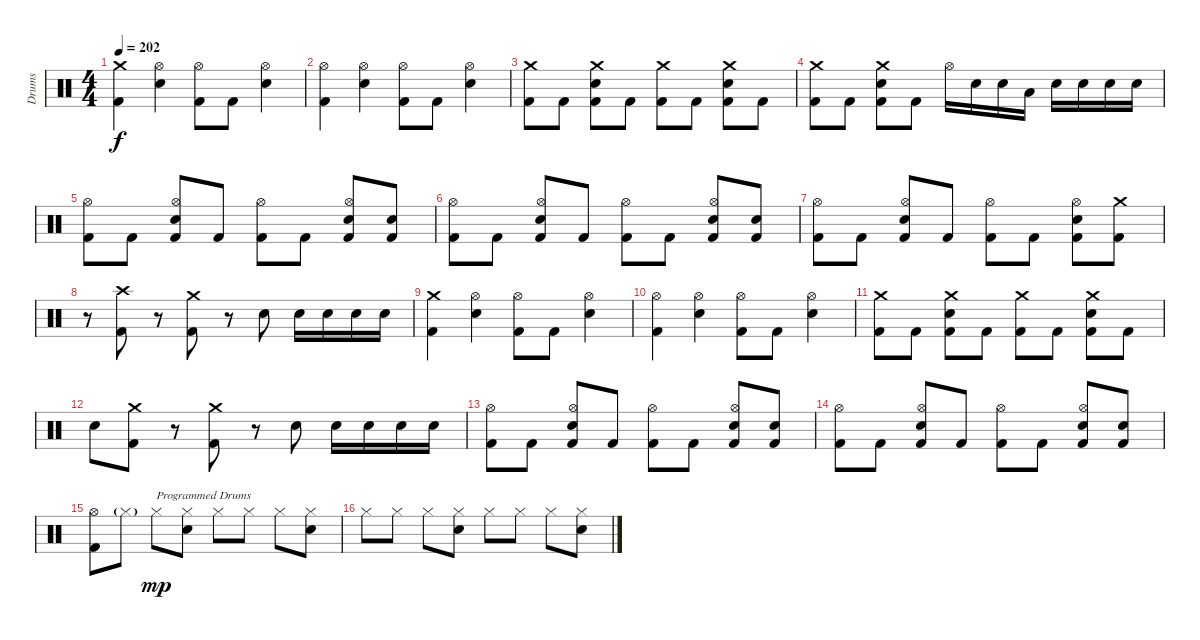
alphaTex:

\track ("Drums" "Drums") {instrument percussion}
\staff {score}
\articulation defaults
\ts (4 4)
\tempo 202
\clef neutral
\ks c
("Crash medium (hit)" "Kick (hit) 2").4{dy f} ("Hi-Hat (open)" "Electric Snare (hit)").4 ("Hi-Hat (open)" "Kick (hit) 2").8 "Kick (hit) 2".8 ("Hi-Hat (open)" "Electric Snare (hit)").4 |
("Hi-Hat (open)" "Kick (hit) 2").4 ("Hi-Hat (open)" "Electric Snare (hit)").4 ("Hi-Hat (open)" "Kick (hit) 2").8 "Kick (hit) 2".8 ("Hi-Hat (open)" "Electric Snare (hit)").4 |
("Crash medium (hit)" "Kick (hit) 2").8 "Kick (hit) 2".8 ("Crash medium (hit)" "Electric Snare (hit)" "Kick (hit) 2").8 "Kick (hit) 2".8 ("Crash medium (hit)" "Kick (hit) 2").8 "Kick (hit) 2".8 ("Crash medium (hit)" "Electric Snare (hit)" "Kick (hit) 2").8 "Kick (hit) 2".8 |
("Crash medium (hit)" "Kick (hit) 2").8 "Kick (hit) 2".8 ("Crash medium (hit)" "Electric Snare (hit)" "Kick (hit) 2").8 "Kick (hit) 2".8 "Hi-Hat (open)".16 "Electric Snare (hit)".16 "Electric Snare (hit)".16 "Low Tom (hit)".16 "Electric Snare (hit)".16 "Electric Snare (hit)".16 "Electric Snare (hit)".16 "Electric Snare (hit)".16 |
("Hi-Hat (open)" "Kick (hit) 2").8 "Kick (hit) 2".8 ("Hi-Hat (open)" "Electric Snare (hit)" "Kick (hit) 2").8 "Kick (hit) 2".8 ("Hi-Hat (open)" "Kick (hit) 2").8 "Kick (hit) 2".8 ("Hi-Hat (open)" "Electric Snare (hit)" "Kick (hit) 2").8 ("Electric Snare (hit)" "Kick (hit) 2").8 |
("Hi-Hat (open)" "Kick (hit) 2").8 "Kick (hit) 2".8 ("Hi-Hat (open)" "Electric Snare (hit)" "Kick (hit) 2").8 "Kick (hit) 2".8 ("Hi-Hat (open)" "Kick (hit) 2").8 "Kick (hit) 2".8 ("Hi-Hat (open)" "Electric Snare (hit)" "Kick (hit) 2").8 ("Electric Snare (hit)" "Kick (hit) 2").8 |
("Hi-Hat (open)" "Kick (hit) 2").8 "Kick (hit) 2".8 ("Hi-Hat (open)" "Electric Snare (hit)" "Kick (hit) 2").8 "Kick (hit) 2".8 ("Hi-Hat (open)" "Kick (hit) 2").8 "Kick (hit) 2".8 ("Hi-Hat (open)" "Electric Snare (hit)" "Kick (hit) 2").8 ("Crash medium (hit)" "Kick (hit) 2").8 |
r.8 ("Crash high (hit)" "Kick (hit) 2").8 r.8 ("Crash medium (hit)" "Kick (hit) 2").8 r.8 "Electric Snare (hit)".8 "Electric Snare (hit)".16 "Electric Snare (hit)".16 "Electric Snare (hit)".16 "Electric Snare (hit)".16 |
("Crash medium (hit)" "Kick (hit) 2").4 ("Hi-Hat (open)" "Electric Snare (hit)").4 ("Hi-Hat (open)" "Kick (hit) 2").8 "Kick (hit) 2".8 ("Hi-Hat (open)" "Electric Snare (hit)").4 |
("Hi-Hat (open)" "Kick (hit) 2").4 ("Hi-Hat (open)" "Electric Snare (hit)").4 ("Hi-Hat (open)" "Kick (hit) 2").8 "Kick (hit) 2".8 ("Hi-Hat (open)" "Electric Snare (hit)").4 |
("Crash medium (hit)" "Kick (hit) 2").8 "Kick (hit) 2".8 ("Crash medium (hit)" "Electric Snare (hit)" "Kick (hit) 2").8 "Kick (hit) 2".8 ("Crash medium (hit)" "Kick (hit) 2").8 "Kick (hit) 2".8 ("Crash medium (hit)" "Electric Snare (hit)" "Kick (hit) 2").8 "Kick (hit) 2".8 |
"Electric Snare (hit)".8 ("Crash medium (hit)" "Kick (hit) 2").8 r.8 ("Crash medium (hit)" "Kick (hit) 2").8 r.8 "Electric Snare (hit)".8 "Electric Snare (hit)".16 "Electric Snare (hit)".16 "Electric Snare (hit)".16 "Electric Snare (hit)".16 |
("Hi-Hat (open)" "Kick (hit) 2").8 "Kick (hit) 2".8 ("Hi-Hat (open)" "Electric Snare (hit)" "Kick (hit) 2").8 "Kick (hit) 2".8 ("Hi-Hat (open)" "Kick (hit) 2").8 "Kick (hit) 2".8 ("Hi-Hat (open)" "Electric Snare (hit)" "Kick (hit) 2").8 ("Electric Snare (hit)" "Kick (hit) 2").8 |
("Hi-Hat (open)" "Kick (hit) 2").8 "Kick (hit) 2".8 ("Hi-Hat (open)" "Electric Snare (hit)" "Kick (hit) 2").8 "Kick (hit) 2".8 ("Hi-Hat (open)" "Kick (hit) 2").8 "Kick (hit) 2".8 ("Hi-Hat (open)" "Electric Snare (hit)" "Kick (hit) 2").8 ("Electric Snare (hit)" "Kick (hit) 2").8 |
("Hi-Hat (open)" "Kick (hit) 2").8 "Hi-Hat (closed)"{g}.8 "Hi-Hat (closed)".8{txt "Programmed Drums" dy mp} ("Hi-Hat (closed)" "Electric Snare (hit)").8 "Hi-Hat (closed)".8 "Hi-Hat (closed)".8 "Hi-Hat (closed)".8 ("Hi-Hat (closed)" "Electric Snare (hit)").8 |
"Hi-Hat (closed)".8 "Hi-Hat (closed)".8 "Hi-Hat (closed)".8 ("Hi-Hat (closed)" "Electric Snare (hit)").8 "Hi-Hat (closed)".8 "Hi-Hat (closed)".8 "Hi-Hat (closed)".8 ("Hi-Hat (closed)" "Electric Snare (hit)").8
